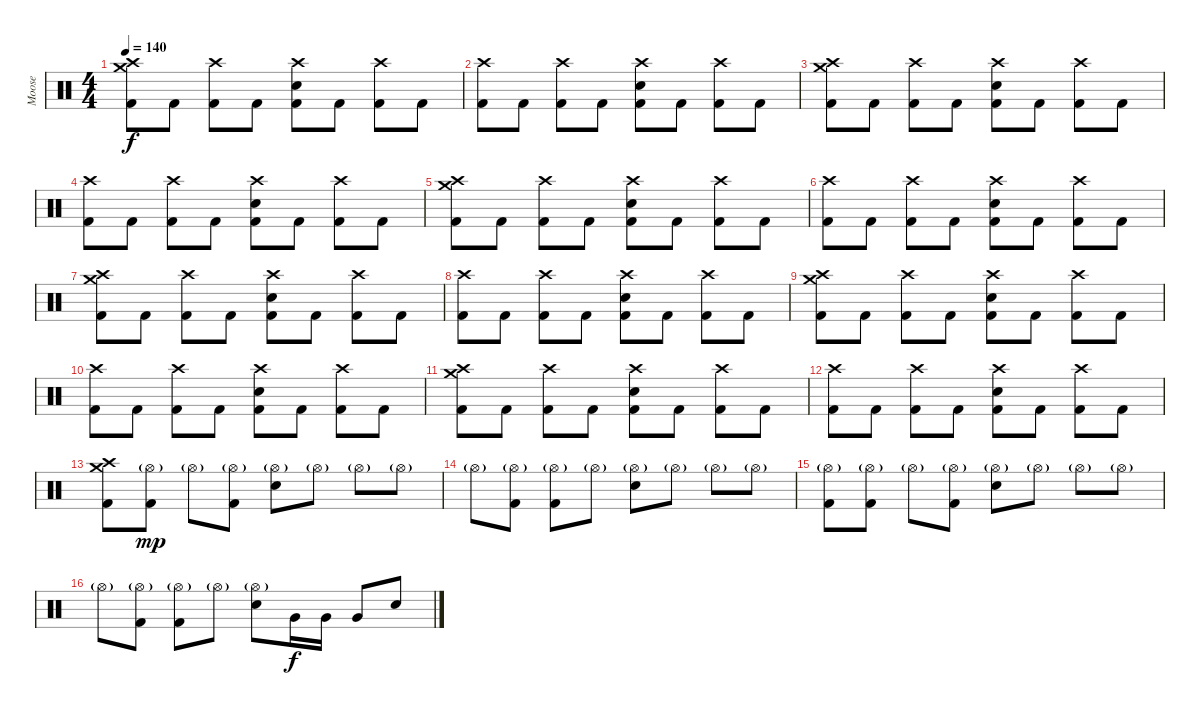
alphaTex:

\track ("Moose" "Moose") {instrument percussion}
\staff {score}
\articulation defaults
\ts (4 4)
\tempo 140
\clef neutral
\ks c
("Crash high (hit)" "Crash medium (hit)" "Kick (hit) 2").8{dy f} "Kick (hit) 2".8 ("Crash high (hit)" "Kick (hit) 2").8 "Kick (hit) 2".8 ("Crash high (hit)" "Snare (hit) 2" "Kick (hit) 2").8 "Kick (hit) 2".8 ("Crash high (hit)" "Kick (hit) 2").8 "Kick (hit) 2".8 |
("Crash high (hit)" "Kick (hit) 2").8 "Kick (hit) 2".8 ("Crash high (hit)" "Kick (hit) 2").8 "Kick (hit) 2".8 ("Crash high (hit)" "Snare (hit) 2" "Kick (hit) 2").8 "Kick (hit) 2".8 ("Crash high (hit)" "Kick (hit) 2").8 "Kick (hit) 2".8 |
("Crash high (hit)" "Crash medium (hit)" "Kick (hit) 2").8 "Kick (hit) 2".8 ("Crash high (hit)" "Kick (hit) 2").8 "Kick (hit) 2".8 ("Crash high (hit)" "Snare (hit) 2" "Kick (hit) 2").8 "Kick (hit) 2".8 ("Crash high (hit)" "Kick (hit) 2").8 "Kick (hit) 2".8 |
("Crash high (hit)" "Kick (hit) 2").8 "Kick (hit) 2".8 ("Crash high (hit)" "Kick (hit) 2").8 "Kick (hit) 2".8 ("Crash high (hit)" "Snare (hit) 2" "Kick (hit) 2").8 "Kick (hit) 2".8 ("Crash high (hit)" "Kick (hit) 2").8 "Kick (hit) 2".8 |
("Crash high (hit)" "Crash medium (hit)" "Kick (hit) 2").8 "Kick (hit) 2".8 ("Crash high (hit)" "Kick (hit) 2").8 "Kick (hit) 2".8 ("Crash high (hit)" "Snare (hit) 2" "Kick (hit) 2").8 "Kick (hit) 2".8 ("Crash high (hit)" "Kick (hit) 2").8 "Kick (hit) 2".8 |
("Crash high (hit)" "Kick (hit) 2").8 "Kick (hit) 2".8 ("Crash high (hit)" "Kick (hit) 2").8 "Kick (hit) 2".8 ("Crash high (hit)" "Snare (hit) 2" "Kick (hit) 2").8 "Kick (hit) 2".8 ("Crash high (hit)" "Kick (hit) 2").8 "Kick (hit) 2".8 |
("Crash high (hit)" "Crash medium (hit)" "Kick (hit) 2").8 "Kick (hit) 2".8 ("Crash high (hit)" "Kick (hit) 2").8 "Kick (hit) 2".8 ("Crash high (hit)" "Snare (hit) 2" "Kick (hit) 2").8 "Kick (hit) 2".8 ("Crash high (hit)" "Kick (hit) 2").8 "Kick (hit) 2".8 |
("Crash high (hit)" "Kick (hit) 2").8 "Kick (hit) 2".8 ("Crash high (hit)" "Kick (hit) 2").8 "Kick (hit) 2".8 ("Crash high (hit)" "Snare (hit) 2" "Kick (hit) 2").8 "Kick (hit) 2".8 ("Crash high (hit)" "Kick (hit) 2").8 "Kick (hit) 2".8 |
("Crash high (hit)" "Crash medium (hit)" "Kick (hit) 2").8 "Kick (hit) 2".8 ("Crash high (hit)" "Kick (hit) 2").8 "Kick (hit) 2".8 ("Crash high (hit)" "Snare (hit) 2" "Kick (hit) 2").8 "Kick (hit) 2".8 ("Crash high (hit)" "Kick (hit) 2").8 "Kick (hit) 2".8 |
("Crash high (hit)" "Kick (hit) 2").8 "Kick (hit) 2".8 ("Crash high (hit)" "Kick (hit) 2").8 "Kick (hit) 2".8 ("Crash high (hit)" "Snare (hit) 2" "Kick (hit) 2").8 "Kick (hit) 2".8 ("Crash high (hit)" "Kick (hit) 2").8 "Kick (hit) 2".8 |
("Crash high (hit)" "Crash medium (hit)" "Kick (hit) 2").8 "Kick (hit) 2".8 ("Crash high (hit)" "Kick (hit) 2").8 "Kick (hit) 2".8 ("Crash high (hit)" "Snare (hit) 2" "Kick (hit) 2").8 "Kick (hit) 2".8 ("Crash high (hit)" "Kick (hit) 2").8 "Kick (hit) 2".8 |
("Crash high (hit)" "Kick (hit) 2").8 "Kick (hit) 2".8 ("Crash high (hit)" "Kick (hit) 2").8 "Kick (hit) 2".8 ("Crash high (hit)" "Snare (hit) 2" "Kick (hit) 2").8 "Kick (hit) 2".8 ("Crash high (hit)" "Kick (hit) 2").8 "Kick (hit) 2".8 |
("Crash high (hit)" "Crash medium (hit)" "Kick (hit) 2").8 ("Hi-Hat (open)"{g} "Kick (hit) 2").8{dy mp} "Hi-Hat (open)"{g}.8 ("Hi-Hat (open)"{g} "Kick (hit) 2").8 ("Hi-Hat (open)"{g} "Snare (hit) 2").8 "Hi-Hat (open)"{g}.8 "Hi-Hat (open)"{g}.8 "Hi-Hat (open)"{g}.8 |
"Hi-Hat (open)"{g}.8 ("Hi-Hat (open)"{g} "Kick (hit) 2").8 ("Hi-Hat (open)"{g} "Kick (hit) 2").8 "Hi-Hat (open)"{g}.8 ("Hi-Hat (open)"{g} "Snare (hit) 2").8 "Hi-Hat (open)"{g}.8 "Hi-Hat (open)"{g}.8 "Hi-Hat (open)"{g}.8 |
("Hi-Hat (open)"{g} "Kick (hit) 2").8 ("Hi-Hat (open)"{g} "Kick (hit) 2").8 "Hi-Hat (open)"{g}.8 ("Hi-Hat (open)"{g} "Kick (hit) 2").8 ("Hi-Hat (open)"{g} "Snare (hit) 2").8 "Hi-Hat (open)"{g}.8 "Hi-Hat (open)"{g}.8 "Hi-Hat (open)"{g}.8 |
"Hi-Hat (open)"{g}.8 ("Hi-Hat (open)"{g} "Kick (hit) 2").8 ("Hi-Hat (open)"{g} "Kick (hit) 2").8 "Hi-Hat (open)"{g}.8 ("Hi-Hat (open)"{g} "Snare (hit) 2").8 "Very Low Tom (hit)".16{dy f} "Very Low Tom (hit)".16 "Very Low Tom (hit)".8 "Snare (hit) 2".8
